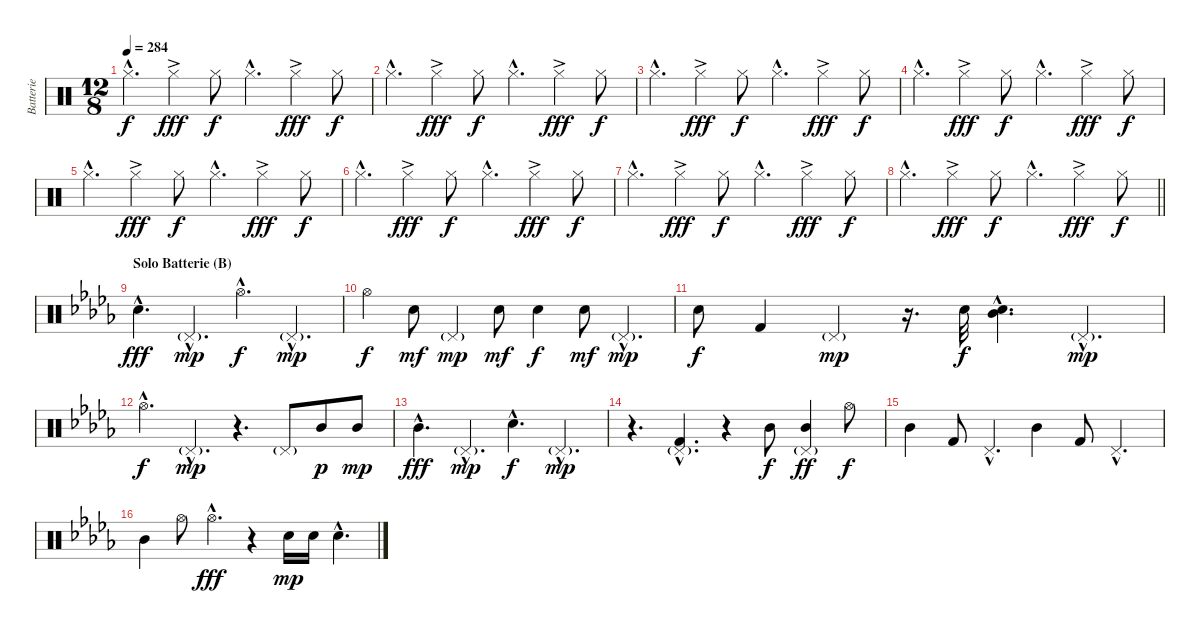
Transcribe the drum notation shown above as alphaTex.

\track ("Batterie" "Batterie") {instrument percussion}
\staff {score}
\articulation defaults
\ts (12 8)
\tempo 284
\clef neutral
\ks c "Hi-Hat (closed)"{hac}.4{d dy f} "Hi-Hat (closed)"{ac}.4{dy fff} "Hi-Hat (closed)".8{dy f} "Hi-Hat (closed)"{hac}.4{d} "Hi-Hat (closed)"{ac}.4{dy fff} "Hi-Hat (closed)".8{dy f}
|
"Hi-Hat (closed)"{hac}.4{d} "Hi-Hat (closed)"{ac}.4{dy fff} "Hi-Hat (closed)".8{dy f} "Hi-Hat (closed)"{hac}.4{d} "Hi-Hat (closed)"{ac}.4{dy fff} "Hi-Hat (closed)".8{dy f} |
"Hi-Hat (closed)"{hac}.4{d} "Hi-Hat (closed)"{ac}.4{dy fff} "Hi-Hat (closed)".8{dy f} "Hi-Hat (closed)"{hac}.4{d} "Hi-Hat (closed)"{ac}.4{dy fff} "Hi-Hat (closed)".8{dy f} |
"Hi-Hat (closed)"{hac}.4{d} "Hi-Hat (closed)"{ac}.4{dy fff} "Hi-Hat (closed)".8{dy f} "Hi-Hat (closed)"{hac}.4{d} "Hi-Hat (closed)"{ac}.4{dy fff} "Hi-Hat (closed)".8{dy f} |
"Hi-Hat (closed)"{hac}.4{d} "Hi-Hat (closed)"{ac}.4{dy fff} "Hi-Hat (closed)".8{dy f} "Hi-Hat (closed)"{hac}.4{d} "Hi-Hat (closed)"{ac}.4{dy fff} "Hi-Hat (closed)".8{dy f} |
"Hi-Hat (closed)"{hac}.4{d} "Hi-Hat (closed)"{ac}.4{dy fff} "Hi-Hat (closed)".8{dy f} "Hi-Hat (closed)"{hac}.4{d} "Hi-Hat (closed)"{ac}.4{dy fff} "Hi-Hat (closed)".8{dy f} |
"Hi-Hat (closed)"{hac}.4{d} "Hi-Hat (closed)"{ac}.4{dy fff} "Hi-Hat (closed)".8{dy f} "Hi-Hat (closed)"{hac}.4{d} "Hi-Hat (closed)"{ac}.4{dy fff} "Hi-Hat (closed)".8{dy f} |
\barLineRight lightlight "Hi-Hat (closed)"{hac}.4{d} "Hi-Hat (closed)"{ac}.4{dy fff} "Hi-Hat (closed)".8{dy f} "Hi-Hat (closed)"{hac}.4{d} "Hi-Hat (closed)"{ac}.4{dy fff} "Hi-Hat (closed)".8{dy f}
|
\section ("" "Solo Batterie (B)")
\ks db "Snare (hit) 2"{hac}.4{d dy fff volume 15 balance 8} "Pedal Hi-Hat (hit)"{g hac}.4{d dy mp} "Hi-Hat (open)"{hac}.4{d dy f} "Pedal Hi-Hat (hit)"{g hac}.4{d dy mp}
|
"Hi-Hat (open)".4{dy f} "Snare (hit) 2".8{dy mf} "Pedal Hi-Hat (hit)"{g}.4{dy mp} "Snare (hit) 2".8{dy mf} "Snare (hit) 2".4{dy f} "Snare (hit) 2".8{dy mf} "Pedal Hi-Hat (hit)"{g hac}.4{d dy mp} |
"Snare (hit) 2".8{dy f} "Kick (hit) 2".4 "Pedal Hi-Hat (hit)"{g}.4{dy mp} r.16{d} "Snare (hit) 2".32{dy f} ("Mid Tom (hit)"{hac} "Snare (hit) 2"{hac}).4{d} "Pedal Hi-Hat (hit)"{g hac}.4{d dy mp} |
"Hi-Hat (open)"{hac}.4{d dy f} "Pedal Hi-Hat (hit)"{g hac}.4{d dy mp} r.4{d} "Pedal Hi-Hat (hit)"{g}.8 "Mid Tom (hit)".8{dy p} "Mid Tom (hit)".8{dy mp} |
"Mid Tom (hit)"{hac}.4{d dy fff} "Pedal Hi-Hat (hit)"{g hac}.4{d dy mp} "Snare (hit) 2"{hac}.4{d dy f} "Pedal Hi-Hat (hit)"{g hac}.4{d dy mp} |
r.4{d} ("Pedal Hi-Hat (hit)"{g hac} "Kick (hit) 2"{hac}).4{d} r.4 "Mid Tom (hit)".8{dy f} ("Pedal Hi-Hat (hit)"{g} "Mid Tom (hit)").4{dy ff} "Hi-Hat (open)".8{dy f} |
"Mid Tom (hit)".4 "Kick (hit) 2".8 "Pedal Hi-Hat (hit)"{hac}.4{d} "Mid Tom (hit)".4 "Kick (hit) 2".8 "Pedal Hi-Hat (hit)"{hac}.4{d} |
"Mid Tom (hit)".4 "Hi-Hat (open)".8 "Hi-Hat (open)"{hac}.4{d dy fff} r.4 "Snare (hit) 2".16{dy mp} "Snare (hit) 2".16 "Electric Snare (hit)"{hac}.4{d}
